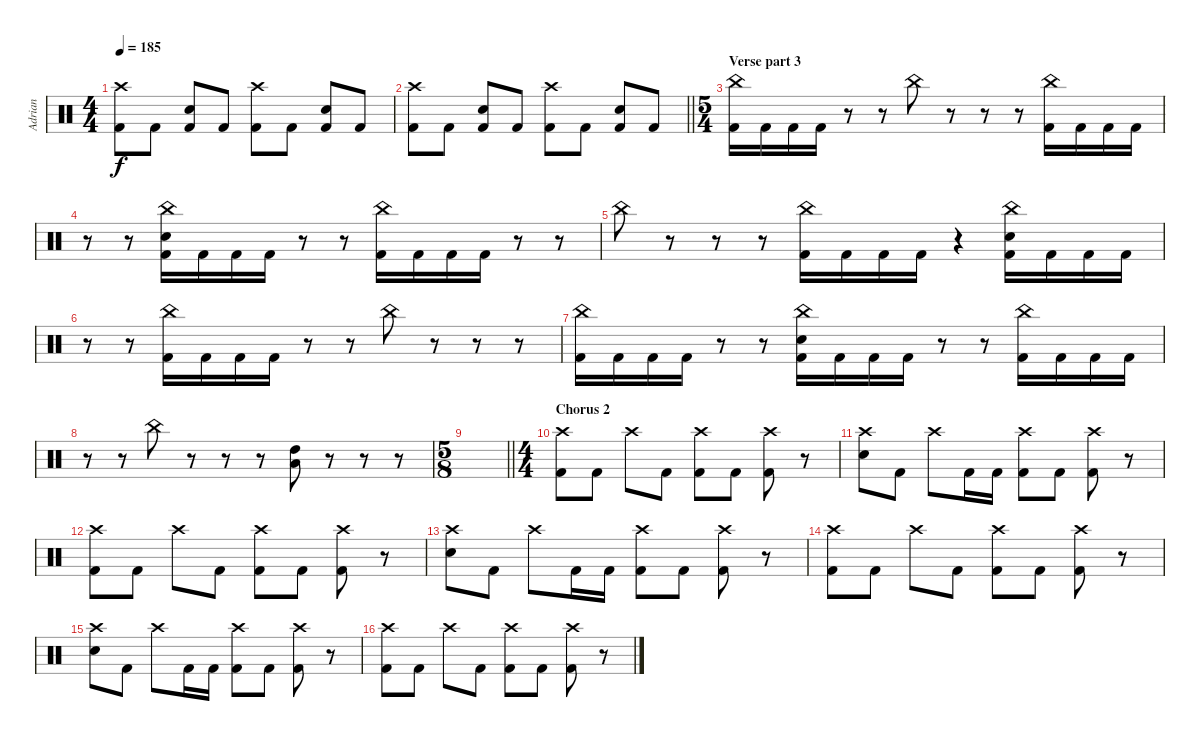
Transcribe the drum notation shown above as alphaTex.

\track ("Adrian" "Adrian") {instrument percussion}
\staff {score}
\articulation defaults
\ts (4 4)
\tempo 185
\clef neutral
\ks c
("Crash high (hit)" "Kick (hit) 2").8{dy f} "Kick (hit) 2".8 ("Snare (hit) 2" "Kick (hit) 2").8 "Kick (hit) 2".8 ("Crash high (hit)" "Kick (hit) 2").8 "Kick (hit) 2".8 ("Snare (hit) 2" "Kick (hit) 2").8 "Kick (hit) 2".8 |
\barLineRight lightlight
("Crash high (hit)" "Kick (hit) 2").8 "Kick (hit) 2".8 ("Snare (hit) 2" "Kick (hit) 2").8 "Kick (hit) 2".8 ("Crash high (hit)" "Kick (hit) 2").8 "Kick (hit) 2".8 ("Snare (hit) 2" "Kick (hit) 2").8 "Kick (hit) 2".8 |
\ts (5 4)
\section ("" "Verse part 3")
("China (hit)" "Kick (hit) 2").16 "Kick (hit) 2".16 "Kick (hit) 2".16 "Kick (hit) 2".16 r.8 r.8 "China (hit)".8 r.8 r.8 r.8 ("China (hit)" "Kick (hit) 2").16 "Kick (hit) 2".16 "Kick (hit) 2".16 "Kick (hit) 2".16 |
r.8 r.8 ("China (hit)" "Snare (hit) 2" "Kick (hit) 2").16 "Kick (hit) 2".16 "Kick (hit) 2".16 "Kick (hit) 2".16 r.8 r.8 ("China (hit)" "Kick (hit) 2").16 "Kick (hit) 2".16 "Kick (hit) 2".16 "Kick (hit) 2".16 r.8 r.8 |
"China (hit)".8 r.8 r.8 r.8 ("China (hit)" "Kick (hit) 2").16 "Kick (hit) 2".16 "Kick (hit) 2".16 "Kick (hit) 2".16 r.4 ("China (hit)" "Snare (hit) 2" "Kick (hit) 2").16 "Kick (hit) 2".16 "Kick (hit) 2".16 "Kick (hit) 2".16 |
r.8 r.8 ("China (hit)" "Kick (hit) 2").16 "Kick (hit) 2".16 "Kick (hit) 2".16 "Kick (hit) 2".16 r.8 r.8 "China (hit)".8 r.8 r.8 r.8 |
("China (hit)" "Kick (hit) 2").16 "Kick (hit) 2".16 "Kick (hit) 2".16 "Kick (hit) 2".16 r.8 r.8 ("China (hit)" "Snare (hit) 2" "Kick (hit) 2").16 "Kick (hit) 2".16 "Kick (hit) 2".16 "Kick (hit) 2".16 r.8 r.8 ("China (hit)" "Kick (hit) 2").16 "Kick (hit) 2".16 "Kick (hit) 2".16 "Kick (hit) 2".16 |
r.8 r.8 "China (hit)".8 r.8 r.8 r.8 ("Low Floor Tom (hit)" "High Tom (hit)").8 r.8 r.8 r.8 |
\ts (5 8)
\barLineRight lightlight
|
\ts (4 4)
\section ("" "Chorus 2")
("Crash high (hit)" "Kick (hit) 2").8 "Kick (hit) 2".8 "Crash high (hit)".8 "Kick (hit) 2".8 ("Crash high (hit)" "Kick (hit) 2").8 "Kick (hit) 2".8 ("Crash high (hit)" "Kick (hit) 2").8 r.8 |
("Crash high (hit)" "Snare (hit) 2").8 "Kick (hit) 2".8 "Crash high (hit)".8 "Kick (hit) 2".16 "Kick (hit) 2".16 ("Crash high (hit)" "Kick (hit) 2").8 "Kick (hit) 2".8 ("Crash high (hit)" "Kick (hit) 2").8 r.8 |
("Crash high (hit)" "Kick (hit) 2").8 "Kick (hit) 2".8 "Crash high (hit)".8 "Kick (hit) 2".8 ("Crash high (hit)" "Kick (hit) 2").8 "Kick (hit) 2".8 ("Crash high (hit)" "Kick (hit) 2").8 r.8 |
("Crash high (hit)" "Snare (hit) 2").8 "Kick (hit) 2".8 "Crash high (hit)".8 "Kick (hit) 2".16 "Kick (hit) 2".16 ("Crash high (hit)" "Kick (hit) 2").8 "Kick (hit) 2".8 ("Crash high (hit)" "Kick (hit) 2").8 r.8 |
("Crash high (hit)" "Kick (hit) 2").8 "Kick (hit) 2".8 "Crash high (hit)".8 "Kick (hit) 2".8 ("Crash high (hit)" "Kick (hit) 2").8 "Kick (hit) 2".8 ("Crash high (hit)" "Kick (hit) 2").8 r.8 |
("Crash high (hit)" "Snare (hit) 2").8 "Kick (hit) 2".8 "Crash high (hit)".8 "Kick (hit) 2".16 "Kick (hit) 2".16 ("Crash high (hit)" "Kick (hit) 2").8 "Kick (hit) 2".8 ("Crash high (hit)" "Kick (hit) 2").8 r.8 |
("Crash high (hit)" "Kick (hit) 2").8 "Kick (hit) 2".8 "Crash high (hit)".8 "Kick (hit) 2".8 ("Crash high (hit)" "Kick (hit) 2").8 "Kick (hit) 2".8 ("Crash high (hit)" "Kick (hit) 2").8 r.8
